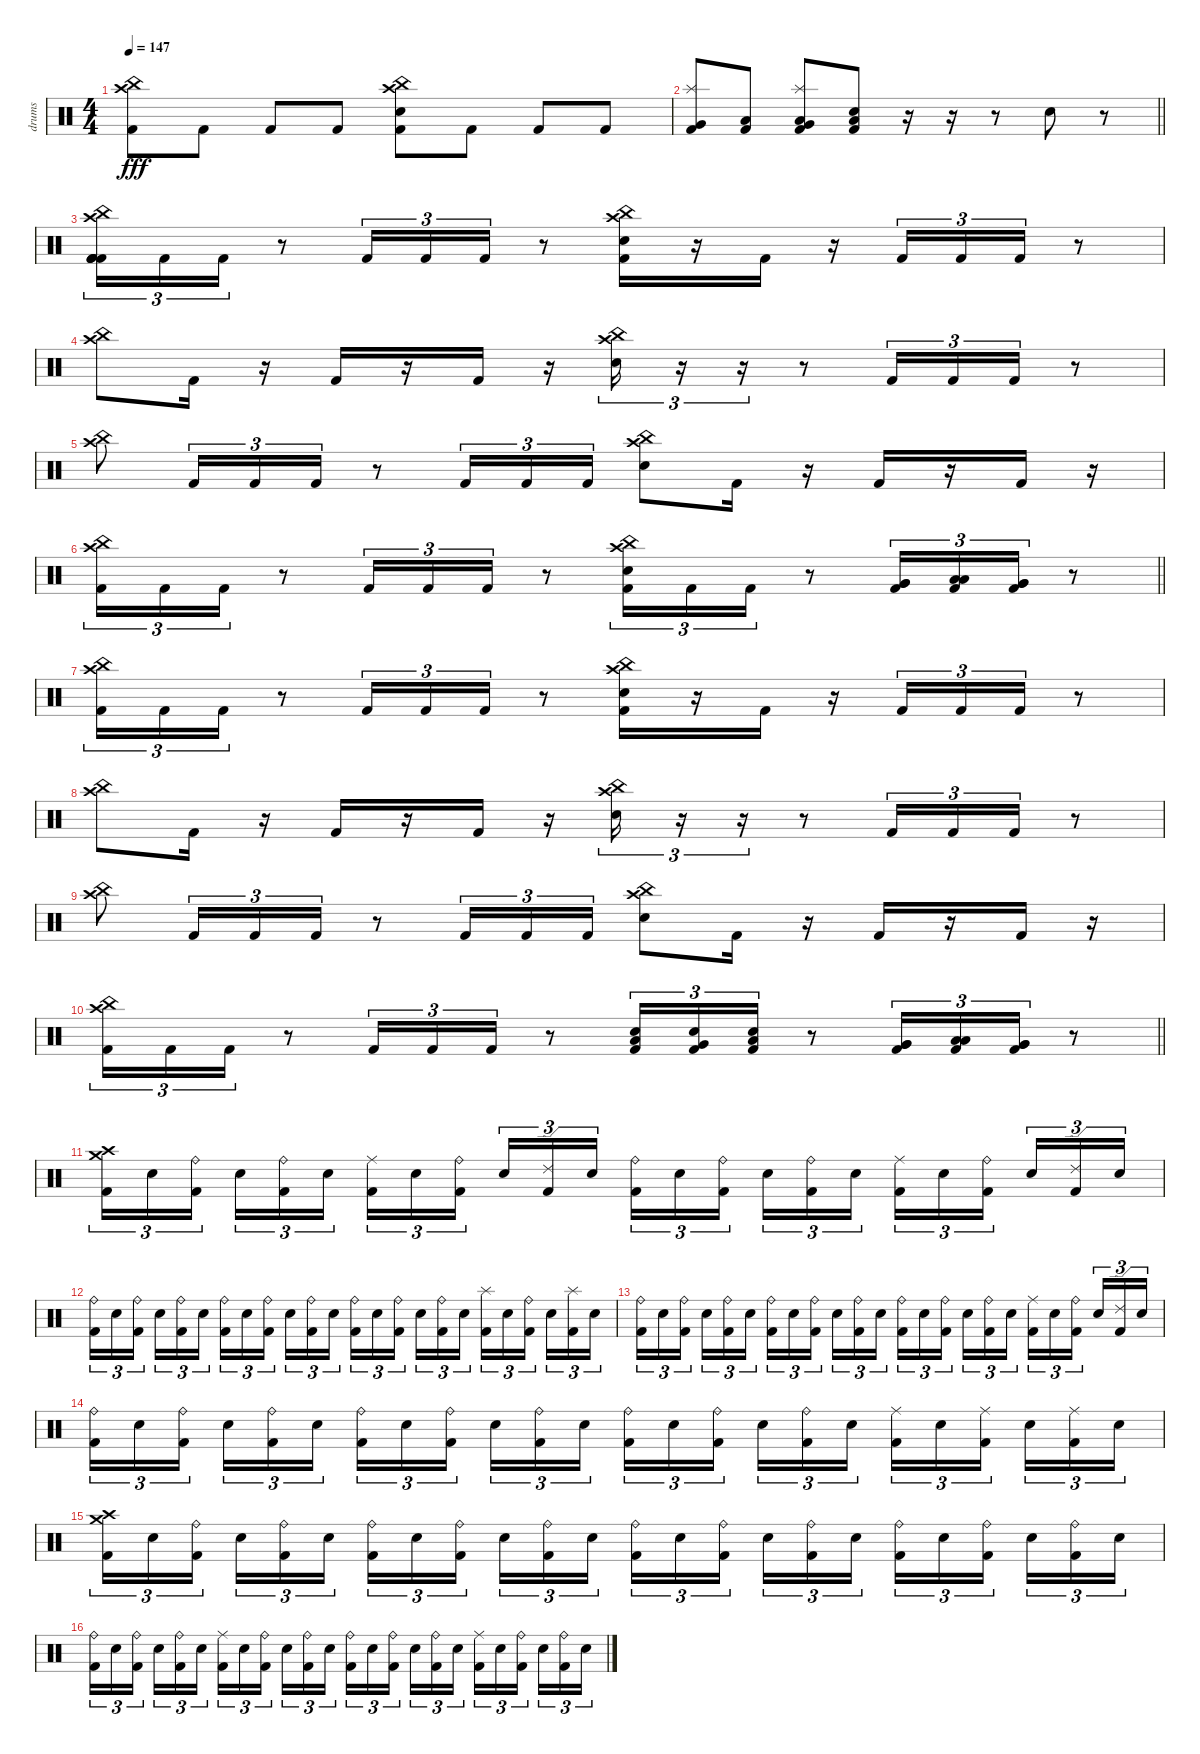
\track ("drums" "drums") {instrument percussion}
\staff {score}
\articulation defaults
\ts (4 4)
\tempo 147
\clef neutral
\ks c
("China (hit)" "Crash high (hit)" "Kick (hit) 2").8{dy fff} "Kick (hit) 2".8 "Kick (hit) 2".8 "Kick (hit) 2".8 ("China (hit)" "Crash high (hit)" "Electric Snare (hit)" "Kick (hit) 2").8 "Kick (hit) 2".8 "Kick (hit) 2".8 "Kick (hit) 2".8 |
\barLineRight lightlight
("Splash (hit)" "Very Low Tom (hit)" "Kick (hit) 2").8 ("Low Floor Tom (hit)" "Kick (hit) 2").8 ("Splash (hit)" "Very Low Tom (hit)" "Low Floor Tom (hit)" "Kick (hit) 2").8 ("Electric Snare (hit)" "Low Floor Tom (hit)" "Kick (hit) 2").8 r.16 r.16 r.8 "Electric Snare (hit)".8 r.8 |
\section ("" "")
("Crash high (hit)" "China (hit)" "Kick (hit) 2" "Kick (hit) 2" "Kick (hit) 2" "Kick (hit) 2").16{tu (3 2)} "Kick (hit) 2".16{tu (3 2)} "Kick (hit) 2".16{tu (3 2)} r.8 "Kick (hit) 2".16{tu (3 2)} "Kick (hit) 2".16{tu (3 2)} "Kick (hit) 2".16{tu (3 2)} r.8 ("China (hit)" "Crash high (hit)" "Electric Snare (hit)" "Kick (hit) 2").16 r.16 "Kick (hit) 2".16 r.16 "Kick (hit) 2".16{tu (3 2)} "Kick (hit) 2".16{tu (3 2)} "Kick (hit) 2".16{tu (3 2)} r.8 |
("Crash high (hit)" "China (hit)").8 "Kick (hit) 2".16 r.16 "Kick (hit) 2".16 r.16 "Kick (hit) 2".16 r.16 ("China (hit)" "Crash high (hit)" "Electric Snare (hit)").16{tu (3 2)} r.16{tu (3 2)} r.16{tu (3 2)} r.8 "Kick (hit) 2".16{tu (3 2)} "Kick (hit) 2".16{tu (3 2)} "Kick (hit) 2".16{tu (3 2)} r.8 |
("China (hit)" "Crash high (hit)").8 "Kick (hit) 2".16{tu (3 2)} "Kick (hit) 2".16{tu (3 2)} "Kick (hit) 2".16{tu (3 2)} r.8 "Kick (hit) 2".16{tu (3 2)} "Kick (hit) 2".16{tu (3 2)} "Kick (hit) 2".16{tu (3 2)} ("China (hit)" "Crash high (hit)" "Electric Snare (hit)").8 "Kick (hit) 2".16 r.16 "Kick (hit) 2".16 r.16 "Kick (hit) 2".16 r.16 |
\barLineRight lightlight
("China (hit)" "Crash high (hit)" "Kick (hit) 2").16{tu (3 2)} "Kick (hit) 2".16{tu (3 2)} "Kick (hit) 2".16{tu (3 2)} r.8 "Kick (hit) 2".16{tu (3 2)} "Kick (hit) 2".16{tu (3 2)} "Kick (hit) 2".16{tu (3 2)} r.8 ("China (hit)" "Crash high (hit)" "Electric Snare (hit)" "Kick (hit) 2").16{tu (3 2)} "Kick (hit) 2".16{tu (3 2)} "Kick (hit) 2".16{tu (3 2)} r.8 ("Very Low Tom (hit)" "Very Low Tom (hit)" "Kick (hit) 2").16{tu (3 2)} ("Low Floor Tom (hit)" "Low Floor Tom (hit)" "Kick (hit) 2").16{tu (3 2)} ("Very Low Tom (hit)" "Very Low Tom (hit)" "Kick (hit) 2").16{tu (3 2)} r.8 |
("Crash high (hit)" "China (hit)" "Kick (hit) 2").16{tu (3 2)} "Kick (hit) 2".16{tu (3 2)} "Kick (hit) 2".16{tu (3 2)} r.8 "Kick (hit) 2".16{tu (3 2)} "Kick (hit) 2".16{tu (3 2)} "Kick (hit) 2".16{tu (3 2)} r.8 ("China (hit)" "Crash high (hit)" "Electric Snare (hit)" "Kick (hit) 2").16 r.16 "Kick (hit) 2".16 r.16 "Kick (hit) 2".16{tu (3 2)} "Kick (hit) 2".16{tu (3 2)} "Kick (hit) 2".16{tu (3 2)} r.8 |
("Crash high (hit)" "China (hit)").8 "Kick (hit) 2".16 r.16 "Kick (hit) 2".16 r.16 "Kick (hit) 2".16 r.16 ("China (hit)" "Crash high (hit)" "Electric Snare (hit)").16{tu (3 2)} r.16{tu (3 2)} r.16{tu (3 2)} r.8 "Kick (hit) 2".16{tu (3 2)} "Kick (hit) 2".16{tu (3 2)} "Kick (hit) 2".16{tu (3 2)} r.8 |
("China (hit)" "Crash high (hit)").8 "Kick (hit) 2".16{tu (3 2)} "Kick (hit) 2".16{tu (3 2)} "Kick (hit) 2".16{tu (3 2)} r.8 "Kick (hit) 2".16{tu (3 2)} "Kick (hit) 2".16{tu (3 2)} "Kick (hit) 2".16{tu (3 2)} ("China (hit)" "Crash high (hit)" "Electric Snare (hit)").8 "Kick (hit) 2".16 r.16 "Kick (hit) 2".16 r.16 "Kick (hit) 2".16 r.16 |
\barLineRight lightlight
("China (hit)" "Crash high (hit)" "Kick (hit) 2").16{tu (3 2)} "Kick (hit) 2".16{tu (3 2)} "Kick (hit) 2".16{tu (3 2)} r.8 "Kick (hit) 2".16{tu (3 2)} "Kick (hit) 2".16{tu (3 2)} "Kick (hit) 2".16{tu (3 2)} r.8 ("Low Floor Tom (hit)" "Electric Snare (hit)" "Kick (hit) 2").16{tu (3 2)} ("Very Low Tom (hit)" "Electric Snare (hit)" "Kick (hit) 2").16{tu (3 2)} ("Low Floor Tom (hit)" "Electric Snare (hit)" "Kick (hit) 2").16{tu (3 2)} r.8 ("Very Low Tom (hit)" "Very Low Tom (hit)" "Kick (hit) 2").16{tu (3 2)} ("Low Floor Tom (hit)" "Low Floor Tom (hit)" "Kick (hit) 2").16{tu (3 2)} ("Very Low Tom (hit)" "Very Low Tom (hit)" "Kick (hit) 2").16{tu (3 2)} r.8 |
\section ("" "")
("Crash high (hit)" "Crash medium (hit)" "Kick (hit) 2").16{tu (3 2)} "Electric Snare (hit)".16{tu (3 2)} ("Ride (bell)" "Kick (hit) 2").16{tu (3 2) beam splitsecondary} "Electric Snare (hit)".16{tu (3 2)} ("Ride (bell)" "Kick (hit) 2").16{tu (3 2)} "Electric Snare (hit)".16{tu (3 2)} ("Ride (middle)" "Kick (hit) 2").16{tu (3 2)} "Electric Snare (hit)".16{tu (3 2)} ("Ride (bell)" "Kick (hit) 2").16{tu (3 2) beam splitsecondary} "Electric Snare (hit)".16{tu (3 2)} ("Ride (edge) 2" "Kick (hit) 2").16{tu (3 2)} "Electric Snare (hit)".16{tu (3 2)} ("Ride (bell)" "Kick (hit) 2").16{tu (3 2)} "Electric Snare (hit)".16{tu (3 2)} ("Ride (bell)" "Kick (hit) 2").16{tu (3 2) beam splitsecondary} "Electric Snare (hit)".16{tu (3 2)} ("Ride (bell)" "Kick (hit) 2").16{tu (3 2)} "Electric Snare (hit)".16{tu (3 2)} ("Ride (middle)" "Kick (hit) 2").16{tu (3 2)} "Electric Snare (hit)".16{tu (3 2)} ("Ride (bell)" "Kick (hit) 2").16{tu (3 2) beam splitsecondary} "Electric Snare (hit)".16{tu (3 2)} ("Ride (edge) 2" "Kick (hit) 2").16{tu (3 2)} "Electric Snare (hit)".16{tu (3 2)} |
("Ride (bell)" "Kick (hit) 2").16{tu (3 2)} "Electric Snare (hit)".16{tu (3 2)} ("Ride (bell)" "Kick (hit) 2").16{tu (3 2) beam splitsecondary} "Electric Snare (hit)".16{tu (3 2)} ("Ride (bell)" "Kick (hit) 2").16{tu (3 2)} "Electric Snare (hit)".16{tu (3 2)} ("Ride (bell)" "Kick (hit) 2").16{tu (3 2)} "Electric Snare (hit)".16{tu (3 2)} ("Ride (bell)" "Kick (hit) 2").16{tu (3 2) beam splitsecondary} "Electric Snare (hit)".16{tu (3 2)} ("Ride (bell)" "Kick (hit) 2").16{tu (3 2)} "Electric Snare (hit)".16{tu (3 2)} ("Ride (bell)" "Kick (hit) 2").16{tu (3 2)} "Electric Snare (hit)".16{tu (3 2)} ("Ride (bell)" "Kick (hit) 2").16{tu (3 2) beam splitsecondary} "Electric Snare (hit)".16{tu (3 2)} ("Ride (bell)" "Kick (hit) 2").16{tu (3 2)} "Electric Snare (hit)".16{tu (3 2)} ("Splash (hit)" "Kick (hit) 2").16{tu (3 2)} "Electric Snare (hit)".16{tu (3 2)} ("Ride (bell)" "Kick (hit) 2").16{tu (3 2) beam splitsecondary} "Electric Snare (hit)".16{tu (3 2)} ("Splash (hit)" "Kick (hit) 2").16{tu (3 2)} "Electric Snare (hit)".16{tu (3 2)} |
("Ride (bell)" "Kick (hit) 2").16{tu (3 2)} "Electric Snare (hit)".16{tu (3 2)} ("Ride (bell)" "Kick (hit) 2").16{tu (3 2) beam splitsecondary} "Electric Snare (hit)".16{tu (3 2)} ("Ride (bell)" "Kick (hit) 2").16{tu (3 2)} "Electric Snare (hit)".16{tu (3 2)} ("Ride (bell)" "Kick (hit) 2").16{tu (3 2)} "Electric Snare (hit)".16{tu (3 2)} ("Ride (bell)" "Kick (hit) 2").16{tu (3 2) beam splitsecondary} "Electric Snare (hit)".16{tu (3 2)} ("Ride (bell)" "Kick (hit) 2").16{tu (3 2)} "Electric Snare (hit)".16{tu (3 2)} ("Ride (bell)" "Kick (hit) 2").16{tu (3 2)} "Electric Snare (hit)".16{tu (3 2)} ("Ride (bell)" "Kick (hit) 2").16{tu (3 2) beam splitsecondary} "Electric Snare (hit)".16{tu (3 2)} ("Ride (bell)" "Kick (hit) 2").16{tu (3 2)} "Electric Snare (hit)".16{tu (3 2)} ("Ride (middle)" "Kick (hit) 2").16{tu (3 2)} "Electric Snare (hit)".16{tu (3 2)} ("Ride (bell)" "Kick (hit) 2").16{tu (3 2) beam splitsecondary} "Electric Snare (hit)".16{tu (3 2)} ("Ride (edge) 2" "Kick (hit) 2").16{tu (3 2)} "Electric Snare (hit)".16{tu (3 2)} |
("Ride (bell)" "Kick (hit) 2").16{tu (3 2)} "Electric Snare (hit)".16{tu (3 2)} ("Ride (bell)" "Kick (hit) 2").16{tu (3 2) beam splitsecondary} "Electric Snare (hit)".16{tu (3 2)} ("Ride (bell)" "Kick (hit) 2").16{tu (3 2)} "Electric Snare (hit)".16{tu (3 2)} ("Ride (bell)" "Kick (hit) 2").16{tu (3 2)} "Electric Snare (hit)".16{tu (3 2)} ("Ride (bell)" "Kick (hit) 2").16{tu (3 2) beam splitsecondary} "Electric Snare (hit)".16{tu (3 2)} ("Ride (bell)" "Kick (hit) 2").16{tu (3 2)} "Electric Snare (hit)".16{tu (3 2)} ("Ride (bell)" "Kick (hit) 2").16{tu (3 2)} "Electric Snare (hit)".16{tu (3 2)} ("Ride (bell)" "Kick (hit) 2").16{tu (3 2) beam splitsecondary} "Electric Snare (hit)".16{tu (3 2)} ("Ride (bell)" "Kick (hit) 2").16{tu (3 2)} "Electric Snare (hit)".16{tu (3 2)} ("Ride (middle)" "Kick (hit) 2").16{tu (3 2)} "Electric Snare (hit)".16{tu (3 2)} ("Ride (middle)" "Kick (hit) 2").16{tu (3 2) beam splitsecondary} "Electric Snare (hit)".16{tu (3 2)} ("Ride (middle)" "Kick (hit) 2").16{tu (3 2)} "Electric Snare (hit)".16{tu (3 2)} |
("Crash high (hit)" "Crash medium (hit)" "Kick (hit) 2").16{tu (3 2)} "Electric Snare (hit)".16{tu (3 2)} ("Ride (bell)" "Kick (hit) 2").16{tu (3 2) beam splitsecondary} "Electric Snare (hit)".16{tu (3 2)} ("Ride (bell)" "Kick (hit) 2").16{tu (3 2)} "Electric Snare (hit)".16{tu (3 2)} ("Ride (bell)" "Kick (hit) 2").16{tu (3 2)} "Electric Snare (hit)".16{tu (3 2)} ("Ride (bell)" "Kick (hit) 2").16{tu (3 2) beam splitsecondary} "Electric Snare (hit)".16{tu (3 2)} ("Ride (bell)" "Kick (hit) 2").16{tu (3 2)} "Electric Snare (hit)".16{tu (3 2)} ("Ride (bell)" "Kick (hit) 2").16{tu (3 2)} "Electric Snare (hit)".16{tu (3 2)} ("Ride (bell)" "Kick (hit) 2").16{tu (3 2) beam splitsecondary} "Electric Snare (hit)".16{tu (3 2)} ("Ride (bell)" "Kick (hit) 2").16{tu (3 2)} "Electric Snare (hit)".16{tu (3 2)} ("Ride (bell)" "Kick (hit) 2").16{tu (3 2)} "Electric Snare (hit)".16{tu (3 2)} ("Ride (bell)" "Kick (hit) 2").16{tu (3 2) beam splitsecondary} "Electric Snare (hit)".16{tu (3 2)} ("Ride (bell)" "Kick (hit) 2").16{tu (3 2)} "Electric Snare (hit)".16{tu (3 2)} |
("Ride (bell)" "Kick (hit) 2").16{tu (3 2)} "Electric Snare (hit)".16{tu (3 2)} ("Ride (bell)" "Kick (hit) 2").16{tu (3 2) beam splitsecondary} "Electric Snare (hit)".16{tu (3 2)} ("Ride (bell)" "Kick (hit) 2").16{tu (3 2)} "Electric Snare (hit)".16{tu (3 2)} ("Ride (middle)" "Kick (hit) 2").16{tu (3 2)} "Electric Snare (hit)".16{tu (3 2)} ("Ride (bell)" "Kick (hit) 2").16{tu (3 2) beam splitsecondary} "Electric Snare (hit)".16{tu (3 2)} ("Ride (bell)" "Kick (hit) 2").16{tu (3 2)} "Electric Snare (hit)".16{tu (3 2)} ("Ride (bell)" "Kick (hit) 2").16{tu (3 2)} "Electric Snare (hit)".16{tu (3 2)} ("Ride (bell)" "Kick (hit) 2").16{tu (3 2) beam splitsecondary} "Electric Snare (hit)".16{tu (3 2)} ("Ride (bell)" "Kick (hit) 2").16{tu (3 2)} "Electric Snare (hit)".16{tu (3 2)} ("Ride (middle)" "Kick (hit) 2").16{tu (3 2)} "Electric Snare (hit)".16{tu (3 2)} ("Ride (bell)" "Kick (hit) 2").16{tu (3 2) beam splitsecondary} "Electric Snare (hit)".16{tu (3 2)} ("Ride (bell)" "Kick (hit) 2").16{tu (3 2)} "Electric Snare (hit)".16{tu (3 2)}
